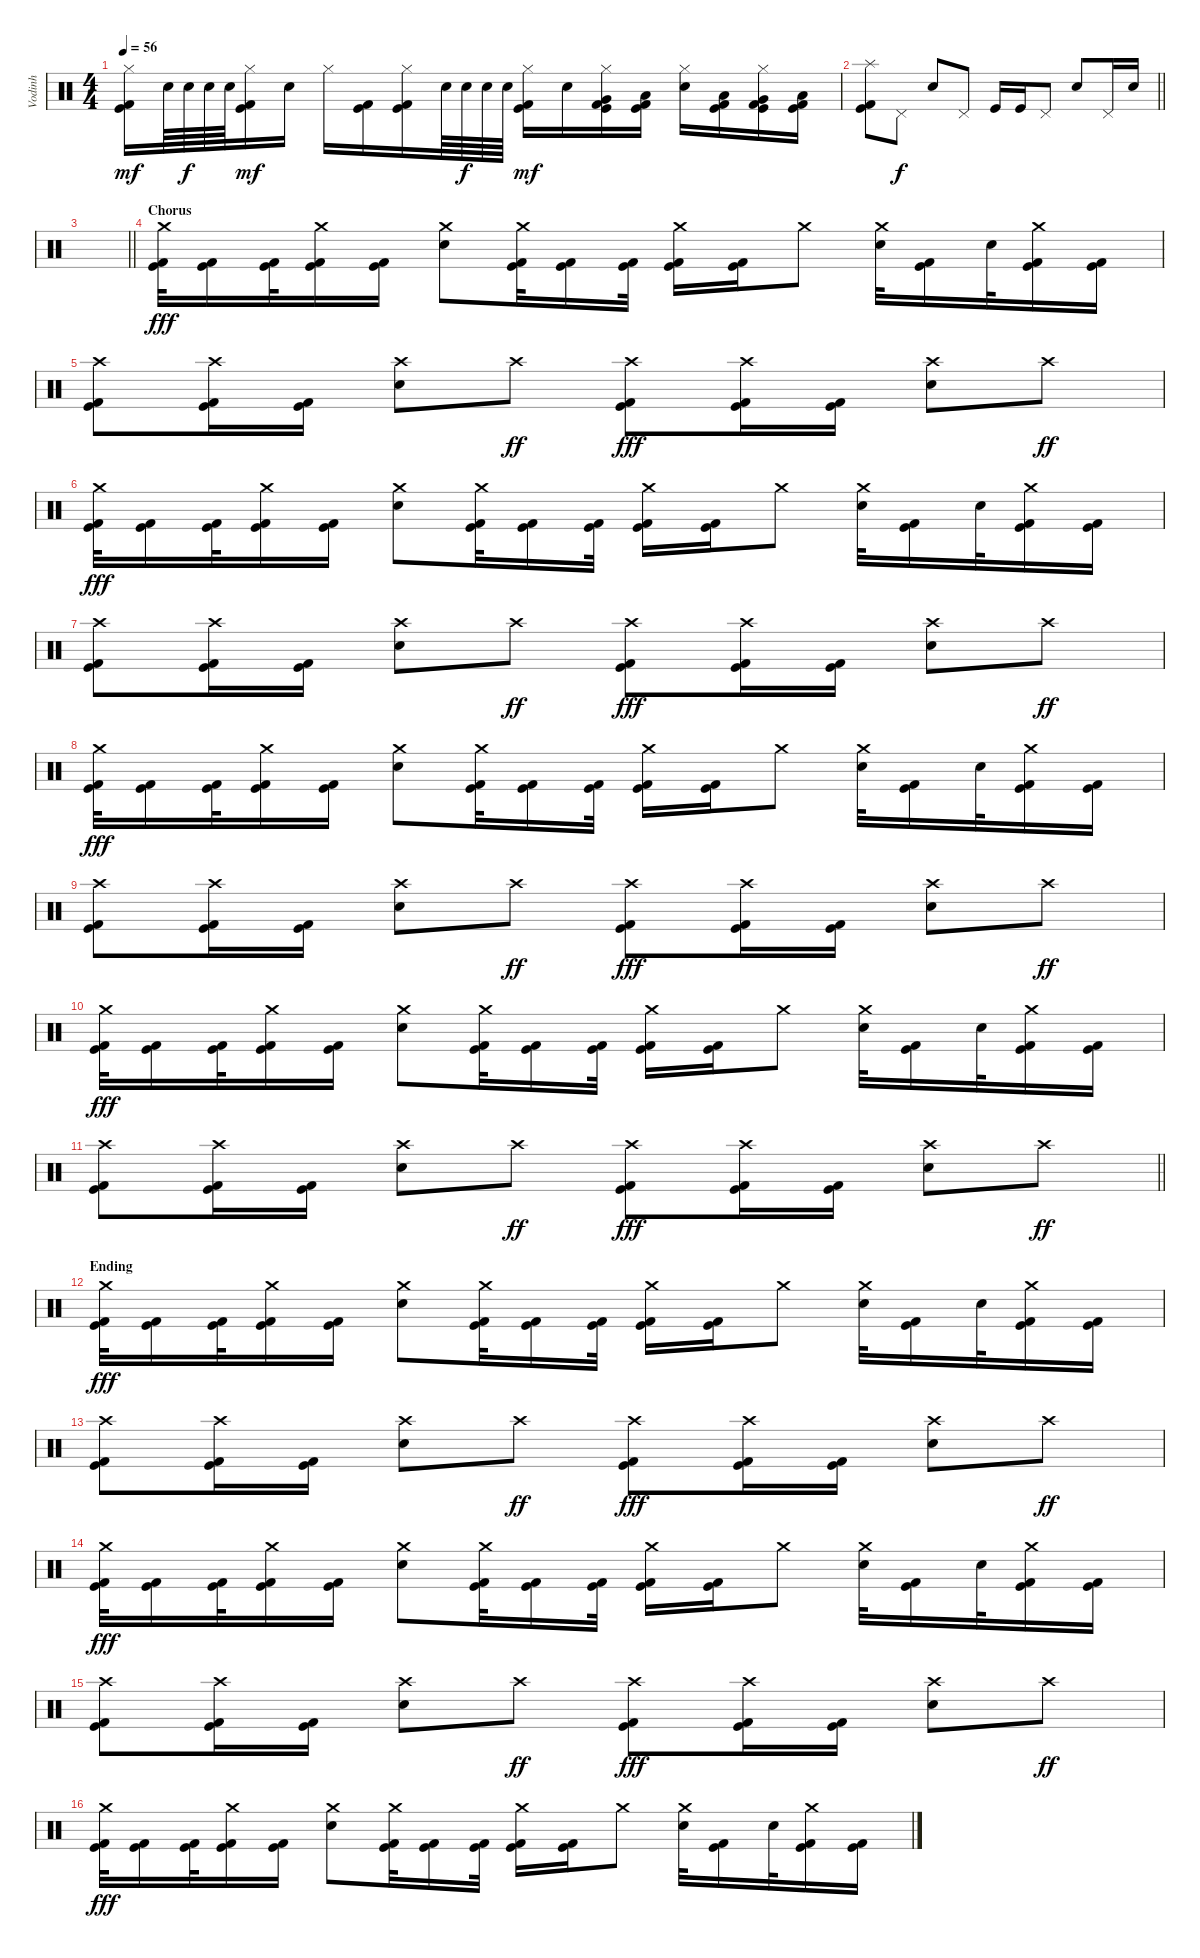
\track ("Vodinh" "Vodinh") {instrument percussion}
\staff {score}
\articulation defaults
\ts (4 4)
\tempo 56
\clef neutral
\ks c
("Hi-Hat (closed)" "Kick (hit)" "Kick (hit) 2").16{dy mf} "Electric Snare (hit)".64 "Electric Snare (hit)".64{dy f} "Electric Snare (hit)".64 "Electric Snare (hit)".64 ("Hi-Hat (closed)" "Kick (hit)" "Kick (hit) 2").16{dy mf} "Electric Snare (hit)".16 "Hi-Hat (closed)".16 ("Kick (hit)" "Kick (hit) 2").16 ("Hi-Hat (closed)" "Kick (hit)" "Kick (hit) 2").16 "Electric Snare (hit)".64 "Electric Snare (hit)".64{dy f} "Electric Snare (hit)".64 "Electric Snare (hit)".64 ("Hi-Hat (closed)" "Kick (hit)" "Kick (hit) 2").16{dy mf} "Electric Snare (hit)".16 ("Hi-Hat (closed)" "Very Low Tom (hit)" "Kick (hit)" "Kick (hit) 2").16 ("Low Tom (hit)" "Kick (hit)" "Kick (hit) 2").16 ("Hi-Hat (closed)" "Electric Snare (hit)").16 ("Low Tom (hit)" "Kick (hit)" "Kick (hit) 2").16 ("Hi-Hat (closed)" "Very Low Tom (hit)" "Kick (hit)" "Kick (hit) 2").16 ("Low Floor Tom (hit)" "Kick (hit)" "Kick (hit) 2").16 |
\barLineRight lightlight
("Splash (hit)" "Kick (hit)" "Kick (hit) 2").8 "Pedal Hi-Hat (hit)".8{dy f} "Snare (hit) 2".8 "Pedal Hi-Hat (hit)".8 "Kick (hit)".16 "Kick (hit)".16 "Pedal Hi-Hat (hit)".8 "Snare (hit) 2".8 "Pedal Hi-Hat (hit)".16 "Electric Snare (hit)".16 |
\barLineRight lightlight
|
\section ("" "Chorus")
("Crash medium (hit)" "Kick (hit)" "Kick (hit) 2").32{dy fff} ("Kick (hit)" "Kick (hit) 2").16 ("Kick (hit)" "Kick (hit) 2").32 ("Crash medium (hit)" "Kick (hit)" "Kick (hit) 2").16 ("Kick (hit)" "Kick (hit) 2").16 ("Crash medium (hit)" "Electric Snare (hit)").8 ("Crash medium (hit)" "Kick (hit)" "Kick (hit) 2").32 ("Kick (hit)" "Kick (hit) 2").16 ("Kick (hit)" "Kick (hit) 2").32 ("Crash medium (hit)" "Kick (hit)" "Kick (hit) 2").16 ("Kick (hit)" "Kick (hit) 2").16 "Crash medium (hit)".8 ("Crash medium (hit)" "Electric Snare (hit)").32 ("Kick (hit)" "Kick (hit) 2").16 "Electric Snare (hit)".32 ("Crash medium (hit)" "Kick (hit)" "Kick (hit) 2").16 ("Kick (hit)" "Kick (hit) 2").16 |
("Crash high (hit)" "Kick (hit)" "Kick (hit) 2").8 ("Crash high (hit)" "Kick (hit)" "Kick (hit) 2").16 ("Kick (hit)" "Kick (hit) 2").16 ("Crash high (hit)" "Electric Snare (hit)").8 "Crash high (hit)".8{dy ff} ("Crash high (hit)" "Kick (hit)" "Kick (hit) 2").8{dy fff} ("Crash high (hit)" "Kick (hit)" "Kick (hit) 2").16 ("Kick (hit)" "Kick (hit) 2").16 ("Crash high (hit)" "Electric Snare (hit)").8 "Crash high (hit)".8{dy ff} |
("Crash medium (hit)" "Kick (hit)" "Kick (hit) 2").32{dy fff} ("Kick (hit)" "Kick (hit) 2").16 ("Kick (hit)" "Kick (hit) 2").32 ("Crash medium (hit)" "Kick (hit)" "Kick (hit) 2").16 ("Kick (hit)" "Kick (hit) 2").16 ("Crash medium (hit)" "Electric Snare (hit)").8 ("Crash medium (hit)" "Kick (hit)" "Kick (hit) 2").32 ("Kick (hit)" "Kick (hit) 2").16 ("Kick (hit)" "Kick (hit) 2").32 ("Crash medium (hit)" "Kick (hit)" "Kick (hit) 2").16 ("Kick (hit)" "Kick (hit) 2").16 "Crash medium (hit)".8 ("Crash medium (hit)" "Electric Snare (hit)").32 ("Kick (hit)" "Kick (hit) 2").16 "Electric Snare (hit)".32 ("Crash medium (hit)" "Kick (hit)" "Kick (hit) 2").16 ("Kick (hit)" "Kick (hit) 2").16 |
("Crash high (hit)" "Kick (hit)" "Kick (hit) 2").8 ("Crash high (hit)" "Kick (hit)" "Kick (hit) 2").16 ("Kick (hit)" "Kick (hit) 2").16 ("Crash high (hit)" "Electric Snare (hit)").8 "Crash high (hit)".8{dy ff} ("Crash high (hit)" "Kick (hit)" "Kick (hit) 2").8{dy fff} ("Crash high (hit)" "Kick (hit)" "Kick (hit) 2").16 ("Kick (hit)" "Kick (hit) 2").16 ("Crash high (hit)" "Electric Snare (hit)").8 "Crash high (hit)".8{dy ff} |
("Crash medium (hit)" "Kick (hit)" "Kick (hit) 2").32{dy fff} ("Kick (hit)" "Kick (hit) 2").16 ("Kick (hit)" "Kick (hit) 2").32 ("Crash medium (hit)" "Kick (hit)" "Kick (hit) 2").16 ("Kick (hit)" "Kick (hit) 2").16 ("Crash medium (hit)" "Electric Snare (hit)").8 ("Crash medium (hit)" "Kick (hit)" "Kick (hit) 2").32 ("Kick (hit)" "Kick (hit) 2").16 ("Kick (hit)" "Kick (hit) 2").32 ("Crash medium (hit)" "Kick (hit)" "Kick (hit) 2").16 ("Kick (hit)" "Kick (hit) 2").16 "Crash medium (hit)".8 ("Crash medium (hit)" "Electric Snare (hit)").32 ("Kick (hit)" "Kick (hit) 2").16 "Electric Snare (hit)".32 ("Crash medium (hit)" "Kick (hit)" "Kick (hit) 2").16 ("Kick (hit)" "Kick (hit) 2").16 |
("Crash high (hit)" "Kick (hit)" "Kick (hit) 2").8 ("Crash high (hit)" "Kick (hit)" "Kick (hit) 2").16 ("Kick (hit)" "Kick (hit) 2").16 ("Crash high (hit)" "Electric Snare (hit)").8 "Crash high (hit)".8{dy ff} ("Crash high (hit)" "Kick (hit)" "Kick (hit) 2").8{dy fff} ("Crash high (hit)" "Kick (hit)" "Kick (hit) 2").16 ("Kick (hit)" "Kick (hit) 2").16 ("Crash high (hit)" "Electric Snare (hit)").8 "Crash high (hit)".8{dy ff} |
("Crash medium (hit)" "Kick (hit)" "Kick (hit) 2").32{dy fff} ("Kick (hit)" "Kick (hit) 2").16 ("Kick (hit)" "Kick (hit) 2").32 ("Crash medium (hit)" "Kick (hit)" "Kick (hit) 2").16 ("Kick (hit)" "Kick (hit) 2").16 ("Crash medium (hit)" "Electric Snare (hit)").8 ("Crash medium (hit)" "Kick (hit)" "Kick (hit) 2").32 ("Kick (hit)" "Kick (hit) 2").16 ("Kick (hit)" "Kick (hit) 2").32 ("Crash medium (hit)" "Kick (hit)" "Kick (hit) 2").16 ("Kick (hit)" "Kick (hit) 2").16 "Crash medium (hit)".8 ("Crash medium (hit)" "Electric Snare (hit)").32 ("Kick (hit)" "Kick (hit) 2").16 "Electric Snare (hit)".32 ("Crash medium (hit)" "Kick (hit)" "Kick (hit) 2").16 ("Kick (hit)" "Kick (hit) 2").16 |
\barLineRight lightlight
("Crash high (hit)" "Kick (hit)" "Kick (hit) 2").8 ("Crash high (hit)" "Kick (hit)" "Kick (hit) 2").16 ("Kick (hit)" "Kick (hit) 2").16 ("Crash high (hit)" "Electric Snare (hit)").8 "Crash high (hit)".8{dy ff} ("Crash high (hit)" "Kick (hit)" "Kick (hit) 2").8{dy fff} ("Crash high (hit)" "Kick (hit)" "Kick (hit) 2").16 ("Kick (hit)" "Kick (hit) 2").16 ("Crash high (hit)" "Electric Snare (hit)").8 "Crash high (hit)".8{dy ff} |
\section ("" "Ending")
("Crash medium (hit)" "Kick (hit)" "Kick (hit) 2").32{dy fff} ("Kick (hit)" "Kick (hit) 2").16 ("Kick (hit)" "Kick (hit) 2").32 ("Crash medium (hit)" "Kick (hit)" "Kick (hit) 2").16 ("Kick (hit)" "Kick (hit) 2").16 ("Crash medium (hit)" "Electric Snare (hit)").8 ("Crash medium (hit)" "Kick (hit)" "Kick (hit) 2").32 ("Kick (hit)" "Kick (hit) 2").16 ("Kick (hit)" "Kick (hit) 2").32 ("Crash medium (hit)" "Kick (hit)" "Kick (hit) 2").16 ("Kick (hit)" "Kick (hit) 2").16 "Crash medium (hit)".8 ("Crash medium (hit)" "Electric Snare (hit)").32 ("Kick (hit)" "Kick (hit) 2").16 "Electric Snare (hit)".32 ("Crash medium (hit)" "Kick (hit)" "Kick (hit) 2").16 ("Kick (hit)" "Kick (hit) 2").16 |
("Crash high (hit)" "Kick (hit)" "Kick (hit) 2").8 ("Crash high (hit)" "Kick (hit)" "Kick (hit) 2").16 ("Kick (hit)" "Kick (hit) 2").16 ("Crash high (hit)" "Electric Snare (hit)").8 "Crash high (hit)".8{dy ff} ("Crash high (hit)" "Kick (hit)" "Kick (hit) 2").8{dy fff} ("Crash high (hit)" "Kick (hit)" "Kick (hit) 2").16 ("Kick (hit)" "Kick (hit) 2").16 ("Crash high (hit)" "Electric Snare (hit)").8 "Crash high (hit)".8{dy ff} |
("Crash medium (hit)" "Kick (hit)" "Kick (hit) 2").32{dy fff} ("Kick (hit)" "Kick (hit) 2").16 ("Kick (hit)" "Kick (hit) 2").32 ("Crash medium (hit)" "Kick (hit)" "Kick (hit) 2").16 ("Kick (hit)" "Kick (hit) 2").16 ("Crash medium (hit)" "Electric Snare (hit)").8 ("Crash medium (hit)" "Kick (hit)" "Kick (hit) 2").32 ("Kick (hit)" "Kick (hit) 2").16 ("Kick (hit)" "Kick (hit) 2").32 ("Crash medium (hit)" "Kick (hit)" "Kick (hit) 2").16 ("Kick (hit)" "Kick (hit) 2").16 "Crash medium (hit)".8 ("Crash medium (hit)" "Electric Snare (hit)").32 ("Kick (hit)" "Kick (hit) 2").16 "Electric Snare (hit)".32 ("Crash medium (hit)" "Kick (hit)" "Kick (hit) 2").16 ("Kick (hit)" "Kick (hit) 2").16 |
("Crash high (hit)" "Kick (hit)" "Kick (hit) 2").8 ("Crash high (hit)" "Kick (hit)" "Kick (hit) 2").16 ("Kick (hit)" "Kick (hit) 2").16 ("Crash high (hit)" "Electric Snare (hit)").8 "Crash high (hit)".8{dy ff} ("Crash high (hit)" "Kick (hit)" "Kick (hit) 2").8{dy fff} ("Crash high (hit)" "Kick (hit)" "Kick (hit) 2").16 ("Kick (hit)" "Kick (hit) 2").16 ("Crash high (hit)" "Electric Snare (hit)").8 "Crash high (hit)".8{dy ff} |
("Crash medium (hit)" "Kick (hit)" "Kick (hit) 2").32{dy fff} ("Kick (hit)" "Kick (hit) 2").16 ("Kick (hit)" "Kick (hit) 2").32 ("Crash medium (hit)" "Kick (hit)" "Kick (hit) 2").16 ("Kick (hit)" "Kick (hit) 2").16 ("Crash medium (hit)" "Electric Snare (hit)").8 ("Crash medium (hit)" "Kick (hit)" "Kick (hit) 2").32 ("Kick (hit)" "Kick (hit) 2").16 ("Kick (hit)" "Kick (hit) 2").32 ("Crash medium (hit)" "Kick (hit)" "Kick (hit) 2").16 ("Kick (hit)" "Kick (hit) 2").16 "Crash medium (hit)".8 ("Crash medium (hit)" "Electric Snare (hit)").32 ("Kick (hit)" "Kick (hit) 2").16 "Electric Snare (hit)".32 ("Crash medium (hit)" "Kick (hit)" "Kick (hit) 2").16 ("Kick (hit)" "Kick (hit) 2").16
